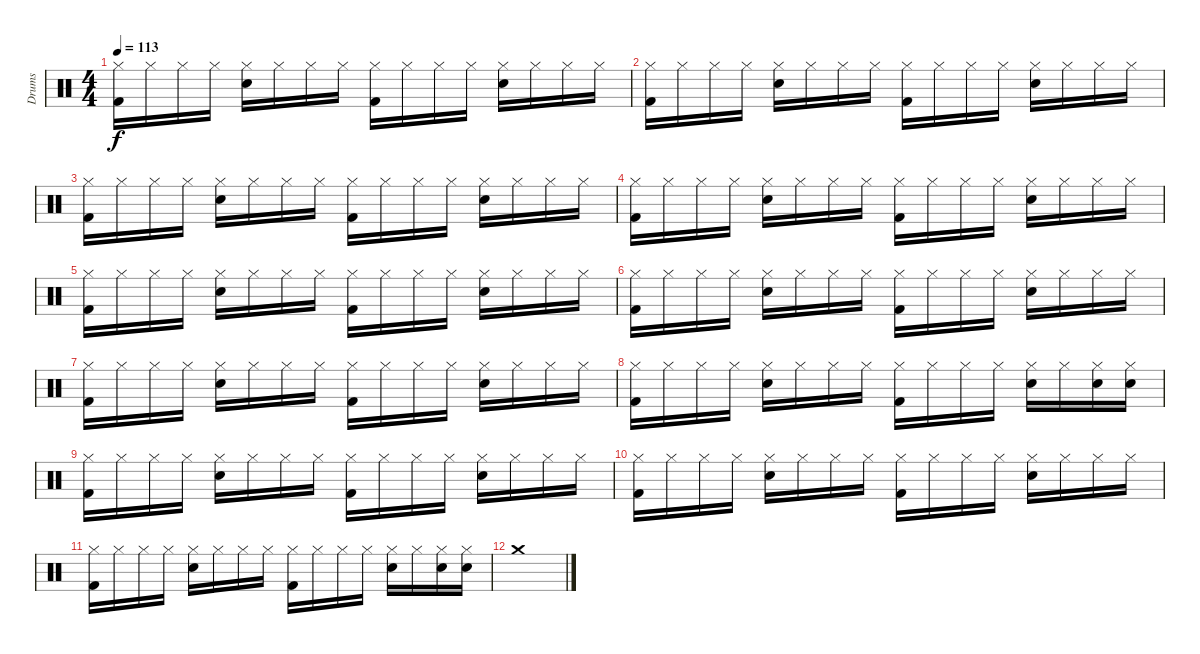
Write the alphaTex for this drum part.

\track ("Drums" "Drums") {instrument percussion}
\staff {score}
\articulation defaults
\ts (4 4)
\tempo 113
\clef neutral
\ks c
("Hi-Hat (closed)" "Kick (hit) 2").16{dy f} "Hi-Hat (closed)".16 "Hi-Hat (closed)".16 "Hi-Hat (closed)".16 ("Hi-Hat (closed)" "Electric Snare (hit)").16 "Hi-Hat (closed)".16 "Hi-Hat (closed)".16 "Hi-Hat (closed)".16 ("Hi-Hat (closed)" "Kick (hit) 2").16 "Hi-Hat (closed)".16 "Hi-Hat (closed)".16 "Hi-Hat (closed)".16 ("Hi-Hat (closed)" "Electric Snare (hit)").16 "Hi-Hat (closed)".16 "Hi-Hat (closed)".16 "Hi-Hat (closed)".16 |
("Hi-Hat (closed)" "Kick (hit) 2").16 "Hi-Hat (closed)".16 "Hi-Hat (closed)".16 "Hi-Hat (closed)".16 ("Hi-Hat (closed)" "Electric Snare (hit)").16 "Hi-Hat (closed)".16 "Hi-Hat (closed)".16 "Hi-Hat (closed)".16 ("Hi-Hat (closed)" "Kick (hit) 2").16 "Hi-Hat (closed)".16 "Hi-Hat (closed)".16 "Hi-Hat (closed)".16 ("Hi-Hat (closed)" "Electric Snare (hit)").16 "Hi-Hat (closed)".16 "Hi-Hat (closed)".16 "Hi-Hat (closed)".16 |
("Hi-Hat (closed)" "Kick (hit) 2").16 "Hi-Hat (closed)".16 "Hi-Hat (closed)".16 "Hi-Hat (closed)".16 ("Hi-Hat (closed)" "Electric Snare (hit)").16 "Hi-Hat (closed)".16 "Hi-Hat (closed)".16 "Hi-Hat (closed)".16 ("Hi-Hat (closed)" "Kick (hit) 2").16 "Hi-Hat (closed)".16 "Hi-Hat (closed)".16 "Hi-Hat (closed)".16 ("Hi-Hat (closed)" "Electric Snare (hit)").16 "Hi-Hat (closed)".16 "Hi-Hat (closed)".16 "Hi-Hat (closed)".16 |
("Hi-Hat (closed)" "Kick (hit) 2").16 "Hi-Hat (closed)".16 "Hi-Hat (closed)".16 "Hi-Hat (closed)".16 ("Hi-Hat (closed)" "Electric Snare (hit)").16 "Hi-Hat (closed)".16 "Hi-Hat (closed)".16 "Hi-Hat (closed)".16 ("Hi-Hat (closed)" "Kick (hit) 2").16 "Hi-Hat (closed)".16 "Hi-Hat (closed)".16 "Hi-Hat (closed)".16 ("Hi-Hat (closed)" "Electric Snare (hit)").16 "Hi-Hat (closed)".16 "Hi-Hat (closed)".16 "Hi-Hat (closed)".16 |
("Hi-Hat (closed)" "Kick (hit) 2").16 "Hi-Hat (closed)".16 "Hi-Hat (closed)".16 "Hi-Hat (closed)".16 ("Hi-Hat (closed)" "Electric Snare (hit)").16 "Hi-Hat (closed)".16 "Hi-Hat (closed)".16 "Hi-Hat (closed)".16 ("Hi-Hat (closed)" "Kick (hit) 2").16 "Hi-Hat (closed)".16 "Hi-Hat (closed)".16 "Hi-Hat (closed)".16 ("Hi-Hat (closed)" "Electric Snare (hit)").16 "Hi-Hat (closed)".16 "Hi-Hat (closed)".16 "Hi-Hat (closed)".16 |
("Hi-Hat (closed)" "Kick (hit) 2").16 "Hi-Hat (closed)".16 "Hi-Hat (closed)".16 "Hi-Hat (closed)".16 ("Hi-Hat (closed)" "Electric Snare (hit)").16 "Hi-Hat (closed)".16 "Hi-Hat (closed)".16 "Hi-Hat (closed)".16 ("Hi-Hat (closed)" "Kick (hit) 2").16 "Hi-Hat (closed)".16 "Hi-Hat (closed)".16 "Hi-Hat (closed)".16 ("Hi-Hat (closed)" "Electric Snare (hit)").16 "Hi-Hat (closed)".16 "Hi-Hat (closed)".16 "Hi-Hat (closed)".16 |
("Hi-Hat (closed)" "Kick (hit) 2").16 "Hi-Hat (closed)".16 "Hi-Hat (closed)".16 "Hi-Hat (closed)".16 ("Hi-Hat (closed)" "Electric Snare (hit)").16 "Hi-Hat (closed)".16 "Hi-Hat (closed)".16 "Hi-Hat (closed)".16 ("Hi-Hat (closed)" "Kick (hit) 2").16 "Hi-Hat (closed)".16 "Hi-Hat (closed)".16 "Hi-Hat (closed)".16 ("Hi-Hat (closed)" "Electric Snare (hit)").16 "Hi-Hat (closed)".16 "Hi-Hat (closed)".16 "Hi-Hat (closed)".16 |
("Hi-Hat (closed)" "Kick (hit) 2").16 "Hi-Hat (closed)".16 "Hi-Hat (closed)".16 "Hi-Hat (closed)".16 ("Hi-Hat (closed)" "Electric Snare (hit)").16 "Hi-Hat (closed)".16 "Hi-Hat (closed)".16 "Hi-Hat (closed)".16 ("Hi-Hat (closed)" "Kick (hit) 2").16 "Hi-Hat (closed)".16 "Hi-Hat (closed)".16 "Hi-Hat (closed)".16 ("Hi-Hat (closed)" "Electric Snare (hit)").16 "Hi-Hat (closed)".16 ("Hi-Hat (closed)" "Electric Snare (hit)").16 ("Hi-Hat (closed)" "Electric Snare (hit)").16 |
("Hi-Hat (closed)" "Kick (hit) 2").16 "Hi-Hat (closed)".16 "Hi-Hat (closed)".16 "Hi-Hat (closed)".16 ("Hi-Hat (closed)" "Electric Snare (hit)").16 "Hi-Hat (closed)".16 "Hi-Hat (closed)".16 "Hi-Hat (closed)".16 ("Hi-Hat (closed)" "Kick (hit) 2").16 "Hi-Hat (closed)".16 "Hi-Hat (closed)".16 "Hi-Hat (closed)".16 ("Hi-Hat (closed)" "Electric Snare (hit)").16 "Hi-Hat (closed)".16 "Hi-Hat (closed)".16 "Hi-Hat (closed)".16 |
("Hi-Hat (closed)" "Kick (hit) 2").16 "Hi-Hat (closed)".16 "Hi-Hat (closed)".16 "Hi-Hat (closed)".16 ("Hi-Hat (closed)" "Electric Snare (hit)").16 "Hi-Hat (closed)".16 "Hi-Hat (closed)".16 "Hi-Hat (closed)".16 ("Hi-Hat (closed)" "Kick (hit) 2").16 "Hi-Hat (closed)".16 "Hi-Hat (closed)".16 "Hi-Hat (closed)".16 ("Hi-Hat (closed)" "Electric Snare (hit)").16 "Hi-Hat (closed)".16 "Hi-Hat (closed)".16 "Hi-Hat (closed)".16 |
("Hi-Hat (closed)" "Kick (hit) 2").16 "Hi-Hat (closed)".16 "Hi-Hat (closed)".16 "Hi-Hat (closed)".16 ("Hi-Hat (closed)" "Electric Snare (hit)").16 "Hi-Hat (closed)".16 "Hi-Hat (closed)".16 "Hi-Hat (closed)".16 ("Hi-Hat (closed)" "Kick (hit) 2").16 "Hi-Hat (closed)".16 "Hi-Hat (closed)".16 "Hi-Hat (closed)".16 ("Hi-Hat (closed)" "Electric Snare (hit)").16 "Hi-Hat (closed)".16 ("Hi-Hat (closed)" "Electric Snare (hit)").16 ("Hi-Hat (closed)" "Electric Snare (hit)").16 |
"Crash medium (hit)".1
